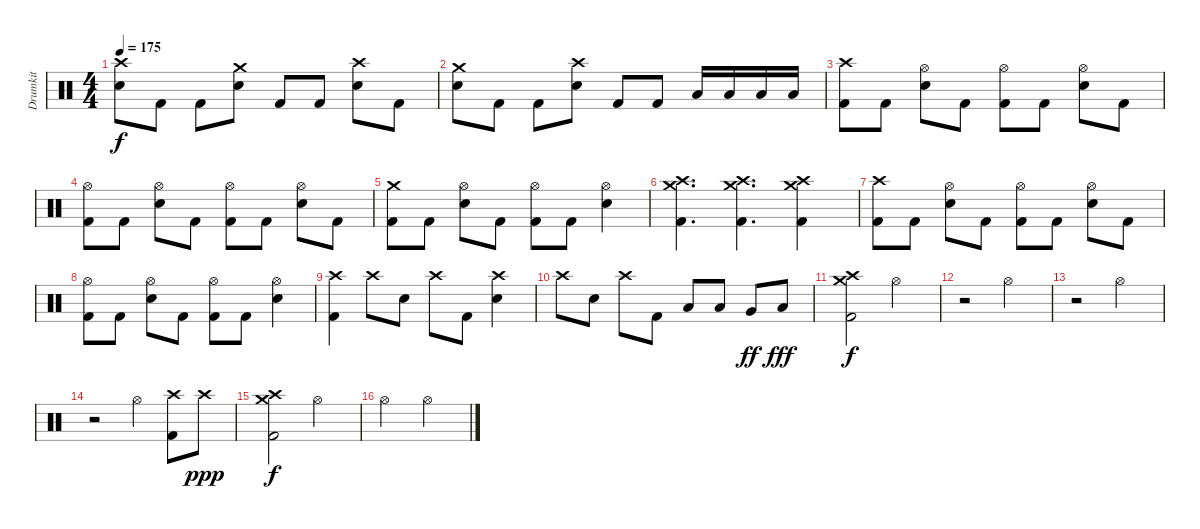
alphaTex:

\track ("Drumkit" "Drumkit") {instrument percussion}
\staff {score}
\articulation defaults
\ts (4 4)
\tempo 175
\clef neutral
\ks c
("Crash high (hit)" "Electric Snare (hit)").8{dy f} "Kick (hit) 2".8 "Kick (hit) 2".8 ("Crash medium (hit)" "Electric Snare (hit)").8 "Kick (hit) 2".8 "Kick (hit) 2".8 ("Crash high (hit)" "Electric Snare (hit)").8 "Kick (hit) 2".8 |
("Crash medium (hit)" "Electric Snare (hit)").8 "Kick (hit) 2".8 "Kick (hit) 2".8 ("Crash high (hit)" "Electric Snare (hit)").8 "Kick (hit) 2".8 "Kick (hit) 2".8 "Low Tom (hit)".16 "Low Tom (hit)".16 "Low Tom (hit)".16 "Low Tom (hit)".16 |
("Crash high (hit)" "Kick (hit) 2").8 "Kick (hit) 2".8 ("Hi-Hat (open)" "Electric Snare (hit)").8 "Kick (hit) 2".8 ("Hi-Hat (open)" "Kick (hit) 2").8 "Kick (hit) 2".8 ("Hi-Hat (open)" "Electric Snare (hit)").8 "Kick (hit) 2".8 |
("Hi-Hat (open)" "Kick (hit) 2").8 "Kick (hit) 2".8 ("Hi-Hat (open)" "Electric Snare (hit)").8 "Kick (hit) 2".8 ("Hi-Hat (open)" "Kick (hit) 2").8 "Kick (hit) 2".8 ("Hi-Hat (open)" "Electric Snare (hit)").8 "Kick (hit) 2".8 |
("Crash medium (hit)" "Kick (hit) 2").8 "Kick (hit) 2".8 ("Hi-Hat (open)" "Electric Snare (hit)").8 "Kick (hit) 2".8 ("Hi-Hat (open)" "Kick (hit) 2").8 "Kick (hit) 2".8 ("Hi-Hat (open)" "Electric Snare (hit)").4 |
("Crash high (hit)" "Crash medium (hit)" "Kick (hit) 2").4{d} ("Crash high (hit)" "Crash medium (hit)" "Kick (hit) 2").4{d} ("Crash high (hit)" "Crash medium (hit)" "Kick (hit) 2").4 |
("Crash high (hit)" "Kick (hit) 2").8 "Kick (hit) 2".8 ("Hi-Hat (open)" "Electric Snare (hit)").8 "Kick (hit) 2".8 ("Hi-Hat (open)" "Kick (hit) 2").8 "Kick (hit) 2".8 ("Hi-Hat (open)" "Electric Snare (hit)").8 "Kick (hit) 2".8 |
("Hi-Hat (open)" "Kick (hit) 2").8 "Kick (hit) 2".8 ("Hi-Hat (open)" "Electric Snare (hit)").8 "Kick (hit) 2".8 ("Hi-Hat (open)" "Kick (hit) 2").8 "Kick (hit) 2".8 ("Hi-Hat (open)" "Electric Snare (hit)").4 |
("Crash high (hit)" "Kick (hit) 2").4 "Crash high (hit)".8 "Electric Snare (hit)".8 "Crash high (hit)".8 "Kick (hit) 2".8 ("Crash high (hit)" "Electric Snare (hit)").4 |
"Crash high (hit)".8 "Electric Snare (hit)".8 "Crash high (hit)".8 "Kick (hit) 2".8 "Low Tom (hit)".8 "Low Tom (hit)".8 "Very Low Tom (hit)".8{dy ff} "Low Floor Tom (hit)".8{dy fff} |
("Crash high (hit)" "Crash medium (hit)" "Kick (hit) 2").2{dy f} "Hi-Hat (open)".2 |
r.2 "Hi-Hat (open)".2 |
r.2 "Hi-Hat (open)".2 |
r.2 "Hi-Hat (open)".4 ("Crash high (hit)" "Kick (hit) 2").8 "Crash high (hit)".8{dy ppp} |
("Crash high (hit)" "Crash medium (hit)" "Kick (hit) 2").2{dy f} "Hi-Hat (open)".2 |
"Hi-Hat (open)".2 "Hi-Hat (open)".2
